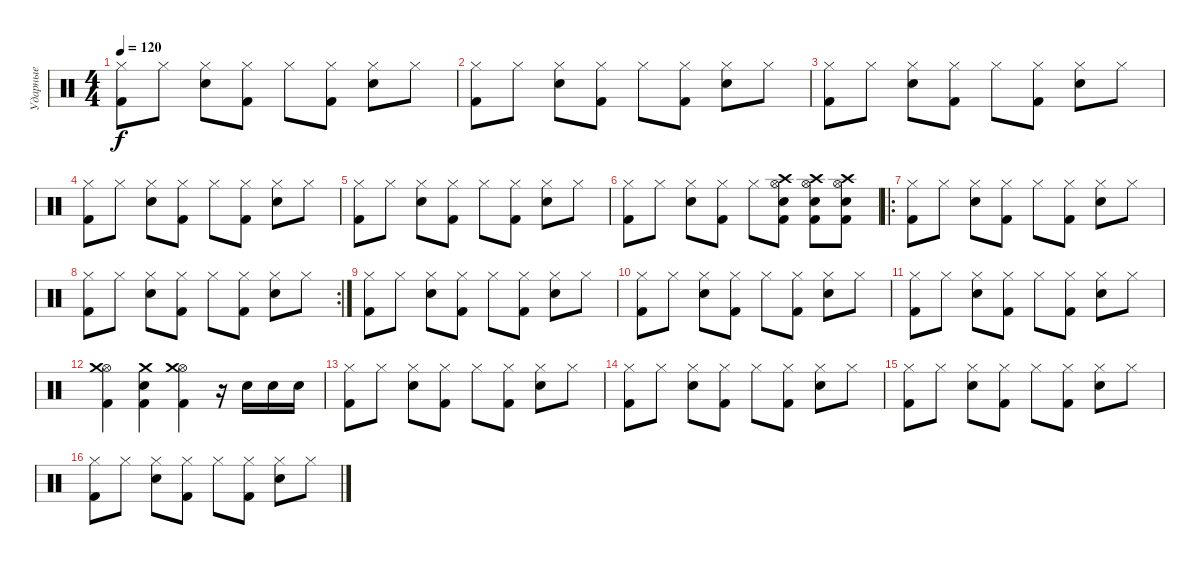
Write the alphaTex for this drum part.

\track ("Ударные" "Ударные") {instrument percussion}
\staff {score}
\articulation defaults
\ts (4 4)
\tempo 120
\clef neutral
\ks c
("Hi-Hat (closed)" "Kick (hit) 2").8{dy f} "Hi-Hat (closed)".8 ("Hi-Hat (closed)" "Electric Snare (hit)").8 ("Hi-Hat (closed)" "Kick (hit) 2").8 "Hi-Hat (closed)".8 ("Hi-Hat (closed)" "Kick (hit) 2").8 ("Hi-Hat (closed)" "Electric Snare (hit)").8 "Hi-Hat (closed)".8 |
("Hi-Hat (closed)" "Kick (hit) 2").8 "Hi-Hat (closed)".8 ("Hi-Hat (closed)" "Electric Snare (hit)").8 ("Hi-Hat (closed)" "Kick (hit) 2").8 "Hi-Hat (closed)".8 ("Hi-Hat (closed)" "Kick (hit) 2").8 ("Hi-Hat (closed)" "Electric Snare (hit)").8 "Hi-Hat (closed)".8 |
("Hi-Hat (closed)" "Kick (hit) 2").8 "Hi-Hat (closed)".8 ("Hi-Hat (closed)" "Electric Snare (hit)").8 ("Hi-Hat (closed)" "Kick (hit) 2").8 "Hi-Hat (closed)".8 ("Hi-Hat (closed)" "Kick (hit) 2").8 ("Hi-Hat (closed)" "Electric Snare (hit)").8 "Hi-Hat (closed)".8 |
("Hi-Hat (closed)" "Kick (hit) 2").8 "Hi-Hat (closed)".8 ("Hi-Hat (closed)" "Electric Snare (hit)").8 ("Hi-Hat (closed)" "Kick (hit) 2").8 "Hi-Hat (closed)".8 ("Hi-Hat (closed)" "Kick (hit) 2").8 ("Hi-Hat (closed)" "Electric Snare (hit)").8 "Hi-Hat (closed)".8 |
("Hi-Hat (closed)" "Kick (hit) 2").8 "Hi-Hat (closed)".8 ("Hi-Hat (closed)" "Electric Snare (hit)").8 ("Hi-Hat (closed)" "Kick (hit) 2").8 "Hi-Hat (closed)".8 ("Hi-Hat (closed)" "Kick (hit) 2").8 ("Hi-Hat (closed)" "Electric Snare (hit)").8 "Hi-Hat (closed)".8 |
("Hi-Hat (closed)" "Kick (hit) 2").8 "Hi-Hat (closed)".8 ("Hi-Hat (closed)" "Electric Snare (hit)").8 ("Hi-Hat (closed)" "Kick (hit) 2").8 "Hi-Hat (closed)".8 ("Hi-Hat (open)" "Crash high (hit)" "Electric Snare (hit)" "Kick (hit) 2").8 ("Hi-Hat (open)" "Crash high (hit)" "Electric Snare (hit)" "Kick (hit) 2").8 ("Hi-Hat (open)" "Crash high (hit)" "Electric Snare (hit)" "Kick (hit) 2").8 |
\ro
("Hi-Hat (closed)" "Kick (hit) 2").8 "Hi-Hat (closed)".8 ("Hi-Hat (closed)" "Electric Snare (hit)").8 ("Hi-Hat (closed)" "Kick (hit) 2").8 "Hi-Hat (closed)".8 ("Hi-Hat (closed)" "Kick (hit) 2").8 ("Hi-Hat (closed)" "Electric Snare (hit)").8 "Hi-Hat (closed)".8 |
\rc 2
("Hi-Hat (closed)" "Kick (hit) 2").8 "Hi-Hat (closed)".8 ("Hi-Hat (closed)" "Electric Snare (hit)").8 ("Hi-Hat (closed)" "Kick (hit) 2").8 "Hi-Hat (closed)".8 ("Hi-Hat (closed)" "Kick (hit) 2").8 ("Hi-Hat (closed)" "Electric Snare (hit)").8 "Hi-Hat (closed)".8 |
("Hi-Hat (closed)" "Kick (hit) 2").8 "Hi-Hat (closed)".8 ("Hi-Hat (closed)" "Electric Snare (hit)").8 ("Hi-Hat (closed)" "Kick (hit) 2").8 "Hi-Hat (closed)".8 ("Hi-Hat (closed)" "Kick (hit) 2").8 ("Hi-Hat (closed)" "Electric Snare (hit)").8 "Hi-Hat (closed)".8 |
("Hi-Hat (closed)" "Kick (hit) 2").8 "Hi-Hat (closed)".8 ("Hi-Hat (closed)" "Electric Snare (hit)").8 ("Hi-Hat (closed)" "Kick (hit) 2").8 "Hi-Hat (closed)".8 ("Hi-Hat (closed)" "Kick (hit) 2").8 ("Hi-Hat (closed)" "Electric Snare (hit)").8 "Hi-Hat (closed)".8 |
("Hi-Hat (closed)" "Kick (hit) 2").8 "Hi-Hat (closed)".8 ("Hi-Hat (closed)" "Electric Snare (hit)").8 ("Hi-Hat (closed)" "Kick (hit) 2").8 "Hi-Hat (closed)".8 ("Hi-Hat (closed)" "Kick (hit) 2").8 ("Hi-Hat (closed)" "Electric Snare (hit)").8 "Hi-Hat (closed)".8 |
("Hi-Hat (open)" "Crash medium (hit)" "Kick (hit) 2").4 ("Crash medium (hit)" "Kick (hit) 2" "Electric Snare (hit)").4 ("Hi-Hat (open)" "Crash medium (hit)" "Kick (hit) 2").4 r.16 "Electric Snare (hit)".16 "Electric Snare (hit)".16 "Electric Snare (hit)".16 |
("Hi-Hat (closed)" "Kick (hit) 2").8 "Hi-Hat (closed)".8 ("Hi-Hat (closed)" "Electric Snare (hit)").8 ("Hi-Hat (closed)" "Kick (hit) 2").8 "Hi-Hat (closed)".8 ("Hi-Hat (closed)" "Kick (hit) 2").8 ("Hi-Hat (closed)" "Electric Snare (hit)").8 "Hi-Hat (closed)".8 |
("Hi-Hat (closed)" "Kick (hit) 2").8 "Hi-Hat (closed)".8 ("Hi-Hat (closed)" "Electric Snare (hit)").8 ("Hi-Hat (closed)" "Kick (hit) 2").8 "Hi-Hat (closed)".8 ("Hi-Hat (closed)" "Kick (hit) 2").8 ("Hi-Hat (closed)" "Electric Snare (hit)").8 "Hi-Hat (closed)".8 |
("Hi-Hat (closed)" "Kick (hit) 2").8 "Hi-Hat (closed)".8 ("Hi-Hat (closed)" "Electric Snare (hit)").8 ("Hi-Hat (closed)" "Kick (hit) 2").8 "Hi-Hat (closed)".8 ("Hi-Hat (closed)" "Kick (hit) 2").8 ("Hi-Hat (closed)" "Electric Snare (hit)").8 "Hi-Hat (closed)".8 |
("Hi-Hat (closed)" "Kick (hit) 2").8 "Hi-Hat (closed)".8 ("Hi-Hat (closed)" "Electric Snare (hit)").8 ("Hi-Hat (closed)" "Kick (hit) 2").8 "Hi-Hat (closed)".8 ("Hi-Hat (closed)" "Kick (hit) 2").8 ("Hi-Hat (closed)" "Electric Snare (hit)").8 "Hi-Hat (closed)".8
